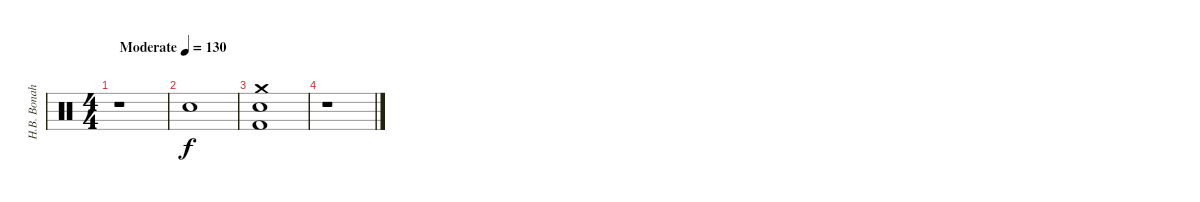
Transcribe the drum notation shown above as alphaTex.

\track ("H.B. Bonah" "H.B. Bonah") {instrument percussion}
\staff {score}
\articulation defaults
\ts (4 4)
\tempo (130 "Moderate")
\clef neutral
\ks c
r.1{dy f} |
"Electric Snare (hit)".1 |
("Crash medium (hit)" "Electric Snare (hit)" "Kick (hit) 2").1 |
r.1
